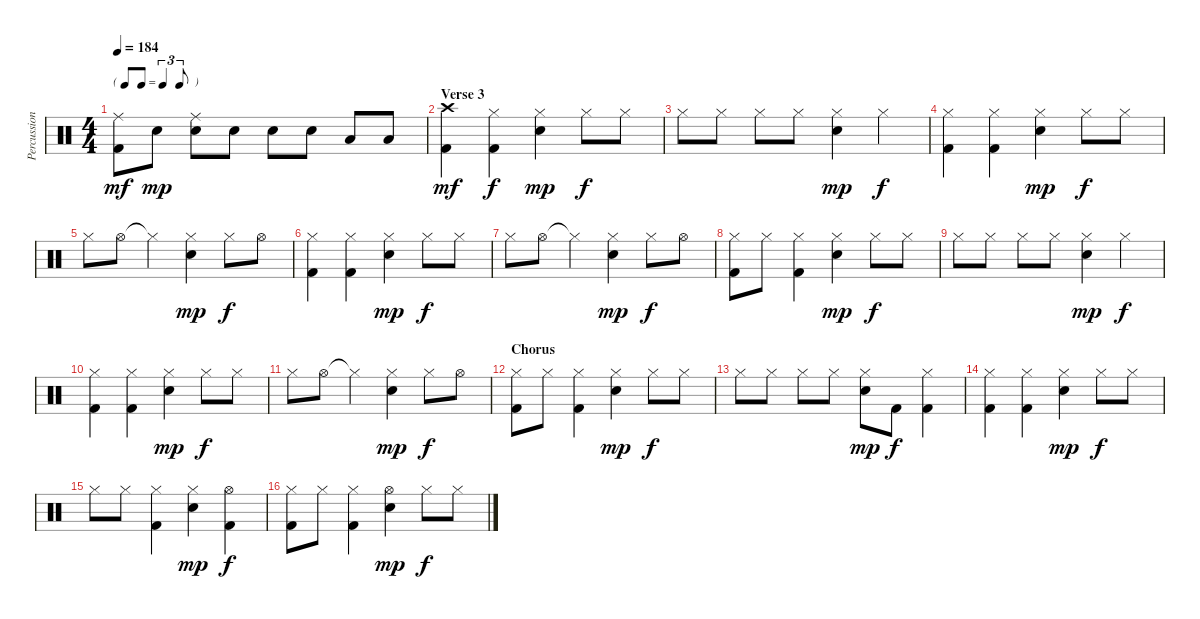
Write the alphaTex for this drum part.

\track ("Percussion" "Percussion") {instrument percussion}
\staff {score}
\articulation defaults
\ts (4 4)
\tf triplet8th
\tempo 184
\clef neutral
\ks c
("Ride (middle)" "Kick (hit) 2").8{dy mf} "Electric Snare (hit)".8{dy mp} ("Ride (middle)" "Electric Snare (hit)").8 "Electric Snare (hit)".8 "Electric Snare (hit)".8 "Electric Snare (hit)".8 "Low Tom (hit)".8 "Low Tom (hit)".8 |
\section ("" "Verse 3")
("Crash high (hit)" "Kick (hit) 2").4{dy mf} ("Hi-Hat (closed)" "Kick (hit) 2").4{dy f} ("Hi-Hat (closed)" "Electric Snare (hit)").4{dy mp} "Hi-Hat (closed)".8{dy f} "Hi-Hat (closed)".8 |
"Hi-Hat (closed)".8 "Hi-Hat (closed)".8 "Hi-Hat (closed)".8 "Hi-Hat (closed)".8 ("Hi-Hat (closed)" "Electric Snare (hit)").4{dy mp} "Hi-Hat (closed)".4{dy f} |
("Hi-Hat (closed)" "Kick (hit) 2").4 ("Hi-Hat (closed)" "Kick (hit) 2").4 ("Hi-Hat (closed)" "Electric Snare (hit)").4{dy mp} "Hi-Hat (closed)".8{dy f} "Hi-Hat (closed)".8 |
"Hi-Hat (closed)".8 "Hi-Hat (open)".8 "Hi-Hat (closed)"{t}.4 ("Hi-Hat (closed)" "Electric Snare (hit)").4{dy mp} "Hi-Hat (closed)".8{dy f} "Hi-Hat (open)".8 |
("Hi-Hat (closed)" "Kick (hit) 2").4 ("Hi-Hat (closed)" "Kick (hit) 2").4 ("Hi-Hat (closed)" "Electric Snare (hit)").4{dy mp} "Hi-Hat (closed)".8{dy f} "Hi-Hat (closed)".8 |
"Hi-Hat (closed)".8 "Hi-Hat (open)".8 "Hi-Hat (closed)"{t}.4 ("Hi-Hat (closed)" "Electric Snare (hit)").4{dy mp} "Hi-Hat (closed)".8{dy f} "Hi-Hat (open)".8 |
("Hi-Hat (closed)" "Kick (hit) 2").8 "Hi-Hat (closed)".8 ("Hi-Hat (closed)" "Kick (hit) 2").4 ("Hi-Hat (closed)" "Electric Snare (hit)").4{dy mp} "Hi-Hat (closed)".8{dy f} "Hi-Hat (closed)".8 |
"Hi-Hat (closed)".8 "Hi-Hat (closed)".8 "Hi-Hat (closed)".8 "Hi-Hat (closed)".8 ("Hi-Hat (closed)" "Electric Snare (hit)").4{dy mp} "Hi-Hat (closed)".4{dy f} |
("Hi-Hat (closed)" "Kick (hit) 2").4 ("Hi-Hat (closed)" "Kick (hit) 2").4 ("Hi-Hat (closed)" "Electric Snare (hit)").4{dy mp} "Hi-Hat (closed)".8{dy f} "Hi-Hat (closed)".8 |
"Hi-Hat (closed)".8 "Hi-Hat (open)".8 "Hi-Hat (closed)"{t}.4 ("Hi-Hat (closed)" "Electric Snare (hit)").4{dy mp} "Hi-Hat (closed)".8{dy f} "Hi-Hat (open)".8 |
\section ("" "Chorus")
("Hi-Hat (closed)" "Kick (hit) 2").8 "Hi-Hat (closed)".8 ("Hi-Hat (closed)" "Kick (hit) 2").4 ("Hi-Hat (closed)" "Electric Snare (hit)").4{dy mp} "Hi-Hat (closed)".8{dy f} "Hi-Hat (closed)".8 |
"Hi-Hat (closed)".8 "Hi-Hat (closed)".8 "Hi-Hat (closed)".8 "Hi-Hat (closed)".8 ("Hi-Hat (closed)" "Electric Snare (hit)").8{dy mp} "Kick (hit) 2".8{dy f} ("Hi-Hat (closed)" "Kick (hit) 2").4 |
("Hi-Hat (closed)" "Kick (hit) 2").4 ("Hi-Hat (closed)" "Kick (hit) 2").4 ("Hi-Hat (closed)" "Electric Snare (hit)").4{dy mp} "Hi-Hat (closed)".8{dy f} "Hi-Hat (closed)".8 |
"Hi-Hat (closed)".8 "Hi-Hat (closed)".8 ("Hi-Hat (closed)" "Kick (hit) 2").4 ("Hi-Hat (closed)" "Electric Snare (hit)").4{dy mp} ("Hi-Hat (open)" "Kick (hit) 2").4{dy f} |
("Hi-Hat (closed)" "Kick (hit) 2").8 "Hi-Hat (closed)".8 ("Hi-Hat (closed)" "Kick (hit) 2").4 ("Hi-Hat (open)" "Electric Snare (hit)").4{dy mp} "Hi-Hat (closed)".8{dy f} "Hi-Hat (closed)".8
